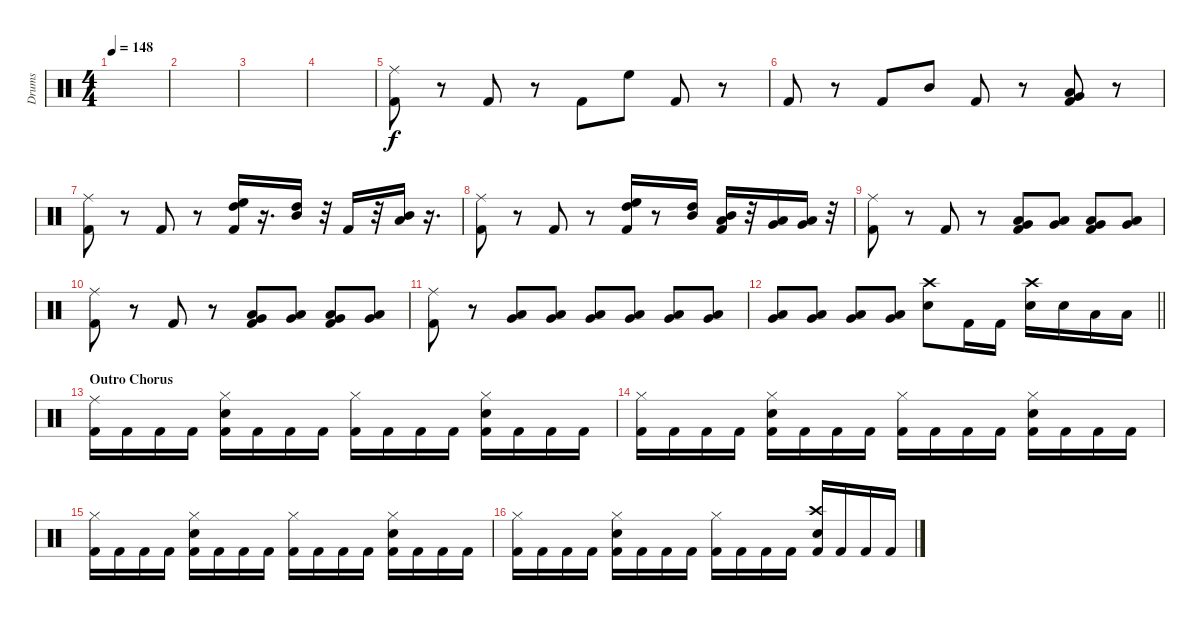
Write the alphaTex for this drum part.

\track ("Drums" "Drums") {instrument percussion}
\staff {score}
\articulation defaults
\ts (4 4)
\tempo 148
\clef neutral
\ks c
|
|
|
|
("Ride (middle)" "Kick (hit) 2").8 r.8 "Kick (hit) 2".8 r.8 "Kick (hit) 2".8 "High Floor Tom (hit)".8 "Kick (hit) 2".8 r.8 |
"Kick (hit) 2".8 r.8 "Kick (hit) 2".8 "Mid Tom (hit)".8 "Kick (hit) 2".8 r.8 ("Low Tom (hit)" "Very Low Tom (hit)" "Kick (hit) 2").8 r.8 |
("Ride (middle)" "Kick (hit) 2").8 r.8 "Kick (hit) 2".8 r.8 ("High Floor Tom (hit)" "High Tom (hit)" "Kick (hit) 2").16 r.16{d} ("Mid Tom (hit)" "High Tom (hit)").16 r.32 "Kick (hit) 2".16 r.32 ("Low Tom (hit)" "Mid Tom (hit)").16 r.16{d} |
("Ride (middle)" "Kick (hit) 2").8 r.8 "Kick (hit) 2".8 r.8 ("High Floor Tom (hit)" "High Tom (hit)" "Kick (hit) 2").16 r.8 ("High Tom (hit)" "Mid Tom (hit)").16 ("Low Tom (hit)" "Mid Tom (hit)" "Kick (hit) 2").16 r.32 ("Low Tom (hit)" "Very Low Tom (hit)").16 ("Low Floor Tom (hit)" "Very Low Tom (hit)").16 r.32 |
("Ride (middle)" "Kick (hit) 2").8 r.8 "Kick (hit) 2".8 r.8 ("Very Low Tom (hit)" "Low Floor Tom (hit)" "Kick (hit) 2").8 ("Very Low Tom (hit)" "Low Floor Tom (hit)").8 ("Very Low Tom (hit)" "Low Floor Tom (hit)" "Kick (hit) 2").8 ("Very Low Tom (hit)" "Low Floor Tom (hit)").8 |
("Ride (middle)" "Kick (hit) 2").8 r.8 "Kick (hit) 2".8 r.8 ("Very Low Tom (hit)" "Low Floor Tom (hit)" "Kick (hit) 2").8 ("Very Low Tom (hit)" "Low Floor Tom (hit)").8 ("Very Low Tom (hit)" "Low Floor Tom (hit)" "Kick (hit) 2").8 ("Very Low Tom (hit)" "Low Floor Tom (hit)").8 |
("Ride (middle)" "Kick (hit) 2").8 r.8 ("Very Low Tom (hit)" "Low Floor Tom (hit)").8 ("Very Low Tom (hit)" "Low Floor Tom (hit)").8 ("Very Low Tom (hit)" "Low Floor Tom (hit)").8 ("Very Low Tom (hit)" "Low Floor Tom (hit)").8 ("Very Low Tom (hit)" "Low Floor Tom (hit)").8 ("Very Low Tom (hit)" "Low Floor Tom (hit)").8 |
\barLineRight lightlight
("Very Low Tom (hit)" "Low Floor Tom (hit)").8 ("Very Low Tom (hit)" "Low Floor Tom (hit)").8 ("Very Low Tom (hit)" "Low Floor Tom (hit)").8 ("Very Low Tom (hit)" "Low Floor Tom (hit)").8 ("Crash high (hit)" "Electric Snare (hit)").8 "Kick (hit) 2".16 "Kick (hit) 2".16 ("Crash high (hit)" "Electric Snare (hit)").16 "Electric Snare (hit)".16 "Low Tom (hit)".16 "Low Floor Tom (hit)".16 |
\section ("" "Outro Chorus")
("Ride (middle)" "Kick (hit) 2").16 "Kick (hit) 2".16 "Kick (hit) 2".16 "Kick (hit) 2".16 ("Hi-Hat (closed)" "Electric Snare (hit)" "Kick (hit) 2").16 "Kick (hit) 2".16 "Kick (hit) 2".16 "Kick (hit) 2".16 ("Hi-Hat (closed)" "Kick (hit) 2").16 "Kick (hit) 2".16 "Kick (hit) 2".16 "Kick (hit) 2".16 ("Hi-Hat (closed)" "Electric Snare (hit)" "Kick (hit) 2").16 "Kick (hit) 2".16 "Kick (hit) 2".16 "Kick (hit) 2".16 |
("Hi-Hat (closed)" "Kick (hit) 2").16 "Kick (hit) 2".16 "Kick (hit) 2".16 "Kick (hit) 2".16 ("Hi-Hat (closed)" "Electric Snare (hit)" "Kick (hit) 2").16 "Kick (hit) 2".16 "Kick (hit) 2".16 "Kick (hit) 2".16 ("Hi-Hat (closed)" "Kick (hit) 2").16 "Kick (hit) 2".16 "Kick (hit) 2".16 "Kick (hit) 2".16 ("Hi-Hat (closed)" "Electric Snare (hit)" "Kick (hit) 2").16 "Kick (hit) 2".16 "Kick (hit) 2".16 "Kick (hit) 2".16 |
("Hi-Hat (closed)" "Kick (hit) 2").16 "Kick (hit) 2".16 "Kick (hit) 2".16 "Kick (hit) 2".16 ("Hi-Hat (closed)" "Electric Snare (hit)" "Kick (hit) 2").16 "Kick (hit) 2".16 "Kick (hit) 2".16 "Kick (hit) 2".16 ("Hi-Hat (closed)" "Kick (hit) 2").16 "Kick (hit) 2".16 "Kick (hit) 2".16 "Kick (hit) 2".16 ("Hi-Hat (closed)" "Electric Snare (hit)" "Kick (hit) 2").16 "Kick (hit) 2".16 "Kick (hit) 2".16 "Kick (hit) 2".16 |
("Hi-Hat (closed)" "Kick (hit) 2").16 "Kick (hit) 2".16 "Kick (hit) 2".16 "Kick (hit) 2".16 ("Hi-Hat (closed)" "Electric Snare (hit)" "Kick (hit) 2").16 "Kick (hit) 2".16 "Kick (hit) 2".16 "Kick (hit) 2".16 ("Hi-Hat (closed)" "Kick (hit) 2").16 "Kick (hit) 2".16 "Kick (hit) 2".16 "Kick (hit) 2".16 ("Crash high (hit)" "Electric Snare (hit)" "Kick (hit) 2").16 "Kick (hit) 2".16 "Kick (hit) 2".16 "Kick (hit) 2".16
